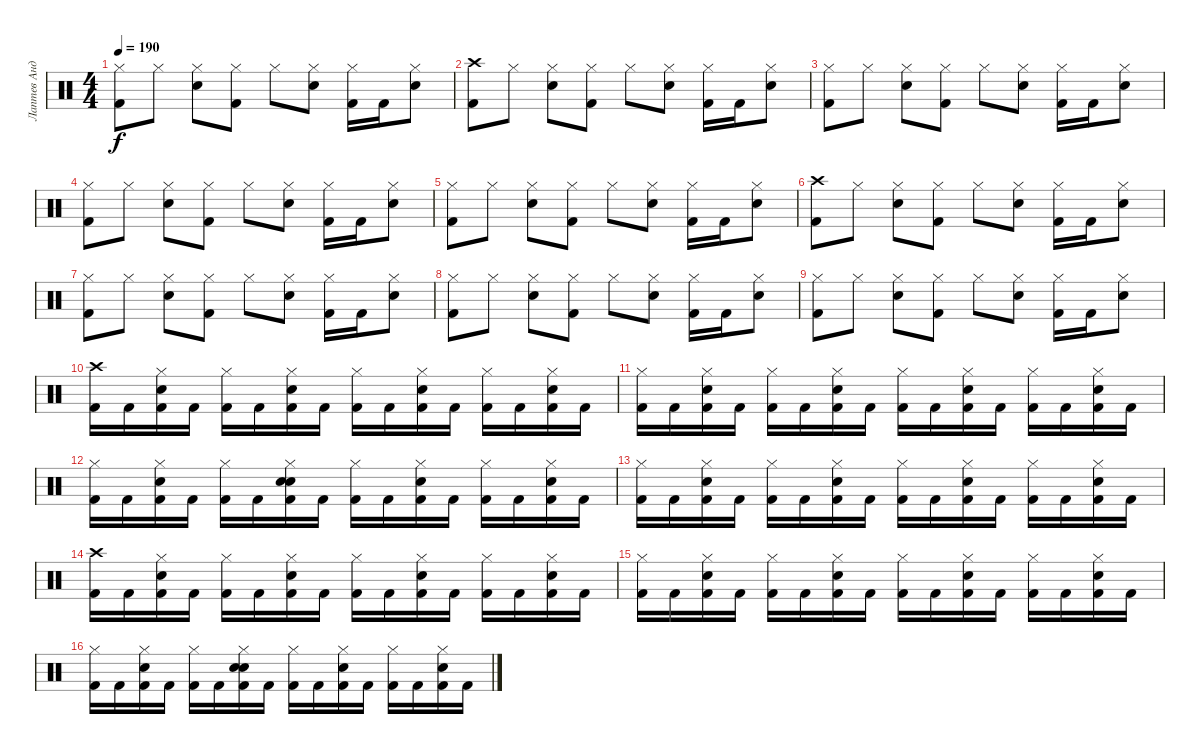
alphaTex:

\track ("Лаптев Андрей" "Лаптев Анд") {instrument percussion}
\staff {score}
\articulation defaults
\ts (4 4)
\tempo 190
\clef neutral
\ks c
("Hi-Hat (closed)" "Kick (hit) 2").8{dy f} "Hi-Hat (closed)".8 ("Electric Snare (hit)" "Hi-Hat (closed)").8 ("Hi-Hat (closed)" "Kick (hit) 2").8 "Hi-Hat (closed)".8 ("Electric Snare (hit)" "Hi-Hat (closed)").8 ("Hi-Hat (closed)" "Kick (hit) 2").16 "Kick (hit) 2".16 ("Hi-Hat (closed)" "Electric Snare (hit)").8 |
("Crash high (hit)" "Kick (hit) 2").8 "Hi-Hat (closed)".8 ("Electric Snare (hit)" "Hi-Hat (closed)").8 ("Hi-Hat (closed)" "Kick (hit) 2").8 "Hi-Hat (closed)".8 ("Hi-Hat (closed)" "Electric Snare (hit)").8 ("Hi-Hat (closed)" "Kick (hit) 2").16 "Kick (hit) 2".16 ("Hi-Hat (closed)" "Electric Snare (hit)").8 |
("Hi-Hat (closed)" "Kick (hit) 2").8 "Hi-Hat (closed)".8 ("Electric Snare (hit)" "Hi-Hat (closed)").8 ("Hi-Hat (closed)" "Kick (hit) 2").8 "Hi-Hat (closed)".8 ("Electric Snare (hit)" "Hi-Hat (closed)").8 ("Hi-Hat (closed)" "Kick (hit) 2").16 "Kick (hit) 2".16 ("Hi-Hat (closed)" "Electric Snare (hit)").8 |
("Hi-Hat (closed)" "Kick (hit) 2").8 "Hi-Hat (closed)".8 ("Electric Snare (hit)" "Hi-Hat (closed)").8 ("Hi-Hat (closed)" "Kick (hit) 2").8 "Hi-Hat (closed)".8 ("Electric Snare (hit)" "Hi-Hat (closed)").8 ("Hi-Hat (closed)" "Kick (hit) 2").16 "Kick (hit) 2".16 ("Hi-Hat (closed)" "Electric Snare (hit)").8 |
("Hi-Hat (closed)" "Kick (hit) 2").8 "Hi-Hat (closed)".8 ("Electric Snare (hit)" "Hi-Hat (closed)").8 ("Hi-Hat (closed)" "Kick (hit) 2").8 "Hi-Hat (closed)".8 ("Electric Snare (hit)" "Hi-Hat (closed)").8 ("Hi-Hat (closed)" "Kick (hit) 2").16 "Kick (hit) 2".16 ("Hi-Hat (closed)" "Electric Snare (hit)").8 |
("Crash high (hit)" "Kick (hit) 2").8 "Hi-Hat (closed)".8 ("Electric Snare (hit)" "Hi-Hat (closed)").8 ("Hi-Hat (closed)" "Kick (hit) 2").8 "Hi-Hat (closed)".8 ("Hi-Hat (closed)" "Electric Snare (hit)").8 ("Hi-Hat (closed)" "Kick (hit) 2").16 "Kick (hit) 2".16 ("Hi-Hat (closed)" "Electric Snare (hit)").8 |
("Hi-Hat (closed)" "Kick (hit) 2").8 "Hi-Hat (closed)".8 ("Electric Snare (hit)" "Hi-Hat (closed)").8 ("Hi-Hat (closed)" "Kick (hit) 2").8 "Hi-Hat (closed)".8 ("Electric Snare (hit)" "Hi-Hat (closed)").8 ("Hi-Hat (closed)" "Kick (hit) 2").16 "Kick (hit) 2".16 ("Hi-Hat (closed)" "Electric Snare (hit)").8 |
("Hi-Hat (closed)" "Kick (hit) 2").8 "Hi-Hat (closed)".8 ("Electric Snare (hit)" "Hi-Hat (closed)").8 ("Hi-Hat (closed)" "Kick (hit) 2").8 "Hi-Hat (closed)".8 ("Electric Snare (hit)" "Hi-Hat (closed)").8 ("Hi-Hat (closed)" "Kick (hit) 2").16 "Kick (hit) 2".16 ("Hi-Hat (closed)" "Electric Snare (hit)").8 |
("Hi-Hat (closed)" "Kick (hit) 2").8 "Hi-Hat (closed)".8 ("Electric Snare (hit)" "Hi-Hat (closed)").8 ("Hi-Hat (closed)" "Kick (hit) 2").8 "Hi-Hat (closed)".8 ("Electric Snare (hit)" "Hi-Hat (closed)").8 ("Hi-Hat (closed)" "Kick (hit) 2").16 "Kick (hit) 2".16 ("Hi-Hat (closed)" "Electric Snare (hit)").8 |
("Crash high (hit)" "Kick (hit) 2").16 "Kick (hit) 2".16 ("Electric Snare (hit)" "Hi-Hat (closed)" "Kick (hit) 2").16 "Kick (hit) 2".16 ("Hi-Hat (closed)" "Kick (hit) 2").16 "Kick (hit) 2".16 ("Hi-Hat (closed)" "Electric Snare (hit)" "Kick (hit) 2").16 "Kick (hit) 2".16 ("Hi-Hat (closed)" "Kick (hit) 2").16 "Kick (hit) 2".16 ("Electric Snare (hit)" "Hi-Hat (closed)" "Kick (hit) 2").16 "Kick (hit) 2".16 ("Hi-Hat (closed)" "Kick (hit) 2").16 "Kick (hit) 2".16 ("Hi-Hat (closed)" "Electric Snare (hit)" "Kick (hit) 2").16 "Kick (hit) 2".16 |
("Hi-Hat (closed)" "Kick (hit) 2").16 "Kick (hit) 2".16 ("Hi-Hat (closed)" "Electric Snare (hit)" "Kick (hit) 2").16 "Kick (hit) 2".16 ("Hi-Hat (closed)" "Kick (hit) 2").16 "Kick (hit) 2".16 ("Electric Snare (hit)" "Hi-Hat (closed)" "Kick (hit) 2").16 "Kick (hit) 2".16 ("Hi-Hat (closed)" "Kick (hit) 2").16 "Kick (hit) 2".16 ("Electric Snare (hit)" "Hi-Hat (closed)" "Kick (hit) 2").16 "Kick (hit) 2".16 ("Hi-Hat (closed)" "Kick (hit) 2").16 "Kick (hit) 2".16 ("Hi-Hat (closed)" "Electric Snare (hit)" "Kick (hit) 2").16 "Kick (hit) 2".16 |
("Hi-Hat (closed)" "Kick (hit) 2").16 "Kick (hit) 2".16 ("Electric Snare (hit)" "Hi-Hat (closed)" "Kick (hit) 2").16 "Kick (hit) 2".16 ("Hi-Hat (closed)" "Kick (hit) 2").16 "Kick (hit) 2".16 ("Electric Snare (hit)" "Electric Snare (hit)" "Hi-Hat (closed)" "Kick (hit) 2").16 "Kick (hit) 2".16 ("Hi-Hat (closed)" "Kick (hit) 2").16 "Kick (hit) 2".16 ("Electric Snare (hit)" "Hi-Hat (closed)" "Kick (hit) 2").16 "Kick (hit) 2".16 ("Hi-Hat (closed)" "Kick (hit) 2").16 "Kick (hit) 2".16 ("Electric Snare (hit)" "Hi-Hat (closed)" "Kick (hit) 2").16 "Kick (hit) 2".16 |
("Hi-Hat (closed)" "Kick (hit) 2").16 "Kick (hit) 2".16 ("Electric Snare (hit)" "Hi-Hat (closed)" "Kick (hit) 2").16 "Kick (hit) 2".16 ("Hi-Hat (closed)" "Kick (hit) 2").16 "Kick (hit) 2".16 ("Electric Snare (hit)" "Hi-Hat (closed)" "Kick (hit) 2").16 "Kick (hit) 2".16 ("Hi-Hat (closed)" "Kick (hit) 2").16 "Kick (hit) 2".16 ("Hi-Hat (closed)" "Electric Snare (hit)" "Kick (hit) 2").16 "Kick (hit) 2".16 ("Hi-Hat (closed)" "Kick (hit) 2").16 "Kick (hit) 2".16 ("Hi-Hat (closed)" "Electric Snare (hit)" "Kick (hit) 2").16 "Kick (hit) 2".16 |
("Crash high (hit)" "Kick (hit) 2").16 "Kick (hit) 2".16 ("Hi-Hat (closed)" "Electric Snare (hit)" "Kick (hit) 2").16 "Kick (hit) 2".16 ("Hi-Hat (closed)" "Kick (hit) 2").16 "Kick (hit) 2".16 ("Electric Snare (hit)" "Hi-Hat (closed)" "Kick (hit) 2").16 "Kick (hit) 2".16 ("Hi-Hat (closed)" "Kick (hit) 2").16 "Kick (hit) 2".16 ("Hi-Hat (closed)" "Electric Snare (hit)" "Kick (hit) 2").16 "Kick (hit) 2".16 ("Hi-Hat (closed)" "Kick (hit) 2").16 "Kick (hit) 2".16 ("Electric Snare (hit)" "Hi-Hat (closed)" "Kick (hit) 2").16 "Kick (hit) 2".16 |
("Hi-Hat (closed)" "Kick (hit) 2").16 "Kick (hit) 2".16 ("Hi-Hat (closed)" "Electric Snare (hit)" "Kick (hit) 2").16 "Kick (hit) 2".16 ("Hi-Hat (closed)" "Kick (hit) 2").16 "Kick (hit) 2".16 ("Electric Snare (hit)" "Hi-Hat (closed)" "Kick (hit) 2").16 "Kick (hit) 2".16 ("Hi-Hat (closed)" "Kick (hit) 2").16 "Kick (hit) 2".16 ("Electric Snare (hit)" "Hi-Hat (closed)" "Kick (hit) 2").16 "Kick (hit) 2".16 ("Hi-Hat (closed)" "Kick (hit) 2").16 "Kick (hit) 2".16 ("Hi-Hat (closed)" "Electric Snare (hit)" "Kick (hit) 2").16 "Kick (hit) 2".16 |
("Hi-Hat (closed)" "Kick (hit) 2").16 "Kick (hit) 2".16 ("Electric Snare (hit)" "Hi-Hat (closed)" "Kick (hit) 2").16 "Kick (hit) 2".16 ("Hi-Hat (closed)" "Kick (hit) 2").16 "Kick (hit) 2".16 ("Electric Snare (hit)" "Electric Snare (hit)" "Hi-Hat (closed)" "Kick (hit) 2").16 "Kick (hit) 2".16 ("Hi-Hat (closed)" "Kick (hit) 2").16 "Kick (hit) 2".16 ("Electric Snare (hit)" "Hi-Hat (closed)" "Kick (hit) 2").16 "Kick (hit) 2".16 ("Hi-Hat (closed)" "Kick (hit) 2").16 "Kick (hit) 2".16 ("Electric Snare (hit)" "Hi-Hat (closed)" "Kick (hit) 2").16 "Kick (hit) 2".16
